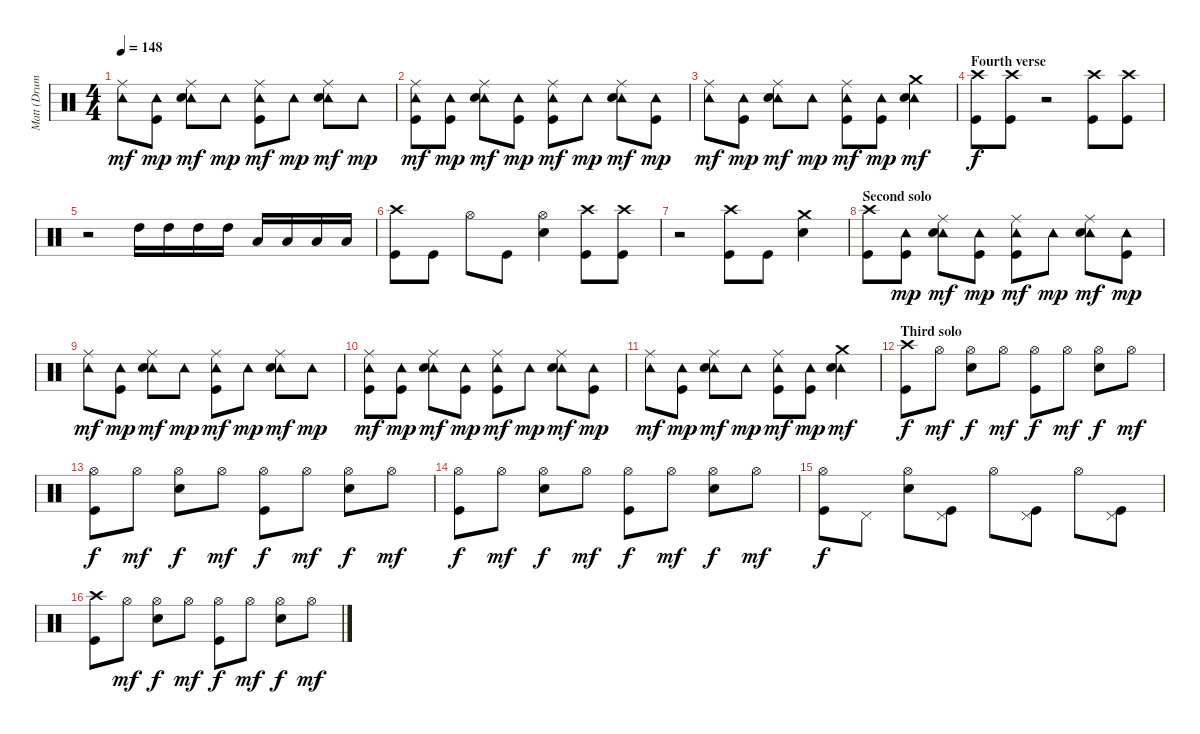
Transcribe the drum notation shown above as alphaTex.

\track ("Matt (Drums)" "Matt (Drum") {instrument percussion}
\staff {score}
\articulation defaults
\ts (4 4)
\tempo 148
\clef neutral
\ks c
("Ride (middle)" "Tambourine (hit)").8{dy mf} ("Tambourine (hit)" "Kick (hit)").8{dy mp} ("Ride (middle)" "Tambourine (hit)" "Electric Snare (hit)").8{dy mf} "Tambourine (hit)".8{dy mp} ("Ride (middle)" "Tambourine (hit)" "Kick (hit)").8{dy mf} "Tambourine (hit)".8{dy mp} ("Ride (middle)" "Tambourine (hit)" "Electric Snare (hit)").8{dy mf} "Tambourine (hit)".8{dy mp} |
("Ride (middle)" "Tambourine (hit)" "Kick (hit)").8{dy mf} ("Tambourine (hit)" "Kick (hit)").8{dy mp} ("Ride (middle)" "Tambourine (hit)" "Electric Snare (hit)").8{dy mf} ("Tambourine (hit)" "Kick (hit)").8{dy mp} ("Ride (middle)" "Tambourine (hit)" "Kick (hit)").8{dy mf} "Tambourine (hit)".8{dy mp} ("Ride (middle)" "Tambourine (hit)" "Electric Snare (hit)").8{dy mf} ("Tambourine (hit)" "Kick (hit)").8{dy mp} |
("Ride (middle)" "Tambourine (hit)").8{dy mf} ("Tambourine (hit)" "Kick (hit)").8{dy mp} ("Ride (middle)" "Tambourine (hit)" "Electric Snare (hit)").8{dy mf} "Tambourine (hit)".8{dy mp} ("Ride (middle)" "Tambourine (hit)" "Kick (hit)").8{dy mf} ("Tambourine (hit)" "Kick (hit)").8{dy mp} ("Crash medium (hit)" "Tambourine (hit)" "Electric Snare (hit)").4{dy mf} |
\section ("" "Fourth verse")
("Crash high (hit)" "Kick (hit)").8{dy f} ("Crash high (hit)" "Kick (hit)").8 r.2 ("Crash high (hit)" "Kick (hit)").8 ("Crash high (hit)" "Kick (hit)").8 |
r.2 "High Tom (hit)".16 "High Tom (hit)".16 "High Tom (hit)".16 "High Tom (hit)".16 "Low Tom (hit)".16 "Low Tom (hit)".16 "Low Tom (hit)".16 "Low Tom (hit)".16 |
("Crash high (hit)" "Kick (hit)").8 "Kick (hit)".8 "Hi-Hat (open)".8 "Kick (hit)".8 ("Hi-Hat (open)" "Electric Snare (hit)").4 ("Crash high (hit)" "Kick (hit)").8 ("Crash high (hit)" "Kick (hit)").8 |
r.2 ("Crash high (hit)" "Kick (hit)").8 "Kick (hit)".8 ("Crash medium (hit)" "Electric Snare (hit)").4 |
\section ("" "Second solo")
("Crash high (hit)" "Kick (hit)").8 ("Tambourine (hit)" "Kick (hit)").8{dy mp} ("Ride (middle)" "Tambourine (hit)" "Electric Snare (hit)").8{dy mf} ("Tambourine (hit)" "Kick (hit)").8{dy mp} ("Ride (middle)" "Tambourine (hit)" "Kick (hit)").8{dy mf} "Tambourine (hit)".8{dy mp} ("Ride (middle)" "Tambourine (hit)" "Electric Snare (hit)").8{dy mf} ("Tambourine (hit)" "Kick (hit)").8{dy mp} |
("Ride (middle)" "Tambourine (hit)").8{dy mf} ("Tambourine (hit)" "Kick (hit)").8{dy mp} ("Ride (middle)" "Tambourine (hit)" "Electric Snare (hit)").8{dy mf} "Tambourine (hit)".8{dy mp} ("Ride (middle)" "Tambourine (hit)" "Kick (hit)").8{dy mf} "Tambourine (hit)".8{dy mp} ("Ride (middle)" "Tambourine (hit)" "Electric Snare (hit)").8{dy mf} "Tambourine (hit)".8{dy mp} |
("Ride (middle)" "Tambourine (hit)" "Kick (hit)").8{dy mf} ("Tambourine (hit)" "Kick (hit)").8{dy mp} ("Ride (middle)" "Tambourine (hit)" "Electric Snare (hit)").8{dy mf} ("Tambourine (hit)" "Kick (hit)").8{dy mp} ("Ride (middle)" "Tambourine (hit)" "Kick (hit)").8{dy mf} "Tambourine (hit)".8{dy mp} ("Ride (middle)" "Tambourine (hit)" "Electric Snare (hit)").8{dy mf} ("Tambourine (hit)" "Kick (hit)").8{dy mp} |
("Ride (middle)" "Tambourine (hit)").8{dy mf} ("Tambourine (hit)" "Kick (hit)").8{dy mp} ("Ride (middle)" "Tambourine (hit)" "Electric Snare (hit)").8{dy mf} "Tambourine (hit)".8{dy mp} ("Ride (middle)" "Tambourine (hit)" "Kick (hit)").8{dy mf} ("Tambourine (hit)" "Kick (hit)").8{dy mp} ("Crash medium (hit)" "Tambourine (hit)" "Electric Snare (hit)").4{dy mf} |
\section ("" "Third solo")
("Crash high (hit)" "Kick (hit)").8{dy f} "Hi-Hat (open)".8{dy mf} ("Hi-Hat (open)" "Electric Snare (hit)").8{dy f} "Hi-Hat (open)".8{dy mf} ("Hi-Hat (open)" "Kick (hit)").8{dy f} "Hi-Hat (open)".8{dy mf} ("Hi-Hat (open)" "Electric Snare (hit)").8{dy f} "Hi-Hat (open)".8{dy mf} |
("Hi-Hat (open)" "Kick (hit)").8{dy f} "Hi-Hat (open)".8{dy mf} ("Hi-Hat (open)" "Electric Snare (hit)").8{dy f} "Hi-Hat (open)".8{dy mf} ("Hi-Hat (open)" "Kick (hit)").8{dy f} "Hi-Hat (open)".8{dy mf} ("Hi-Hat (open)" "Electric Snare (hit)").8{dy f} "Hi-Hat (open)".8{dy mf} |
("Hi-Hat (open)" "Kick (hit)").8{dy f} "Hi-Hat (open)".8{dy mf} ("Hi-Hat (open)" "Electric Snare (hit)").8{dy f} "Hi-Hat (open)".8{dy mf} ("Hi-Hat (open)" "Kick (hit)").8{dy f} "Hi-Hat (open)".8{dy mf} ("Hi-Hat (open)" "Electric Snare (hit)").8{dy f} "Hi-Hat (open)".8{dy mf} |
("Hi-Hat (open)" "Kick (hit)").8{dy f} "Pedal Hi-Hat (hit)".8 ("Hi-Hat (open)" "Electric Snare (hit)").8 ("Pedal Hi-Hat (hit)" "Kick (hit)").8 "Hi-Hat (open)".8 ("Pedal Hi-Hat (hit)" "Kick (hit)").8 "Hi-Hat (open)".8 ("Pedal Hi-Hat (hit)" "Kick (hit)").8 |
("Crash high (hit)" "Kick (hit)").8 "Hi-Hat (open)".8{dy mf} ("Hi-Hat (open)" "Electric Snare (hit)").8{dy f} "Hi-Hat (open)".8{dy mf} ("Hi-Hat (open)" "Kick (hit)").8{dy f} "Hi-Hat (open)".8{dy mf} ("Hi-Hat (open)" "Electric Snare (hit)").8{dy f} "Hi-Hat (open)".8{dy mf}
